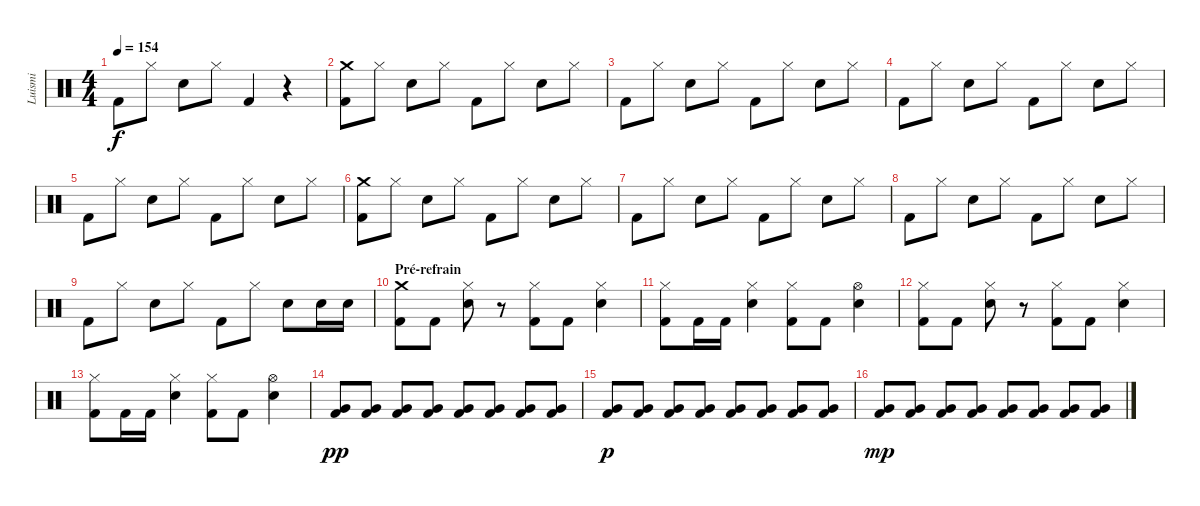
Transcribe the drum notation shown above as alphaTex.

\track ("Luismi" "Luismi") {instrument percussion}
\staff {score}
\articulation defaults
\ts (4 4)
\tempo 154
\clef neutral
\ks c "Kick (hit) 2".8{dy f} "Hi-Hat (closed)".8 "Snare (hit) 2".8 "Hi-Hat (closed)".8 "Kick (hit) 2".4
r.4 |
("Crash medium (hit)" "Kick (hit) 2").8 "Hi-Hat (closed)".8 "Snare (hit) 2".8 "Hi-Hat (closed)".8 "Kick (hit) 2".8 "Hi-Hat (closed)".8 "Snare (hit) 2".8 "Hi-Hat (closed)".8 |
"Kick (hit) 2".8 "Hi-Hat (closed)".8 "Snare (hit) 2".8 "Hi-Hat (closed)".8 "Kick (hit) 2".8 "Hi-Hat (closed)".8 "Snare (hit) 2".8 "Hi-Hat (closed)".8 |
"Kick (hit) 2".8 "Hi-Hat (closed)".8 "Snare (hit) 2".8 "Hi-Hat (closed)".8 "Kick (hit) 2".8 "Hi-Hat (closed)".8 "Snare (hit) 2".8 "Hi-Hat (closed)".8 |
"Kick (hit) 2".8 "Hi-Hat (closed)".8 "Snare (hit) 2".8 "Hi-Hat (closed)".8 "Kick (hit) 2".8 "Hi-Hat (closed)".8 "Snare (hit) 2".8 "Hi-Hat (closed)".8 |
("Crash medium (hit)" "Kick (hit) 2").8 "Hi-Hat (closed)".8 "Snare (hit) 2".8 "Hi-Hat (closed)".8 "Kick (hit) 2".8 "Hi-Hat (closed)".8 "Snare (hit) 2".8 "Hi-Hat (closed)".8 |
"Kick (hit) 2".8 "Hi-Hat (closed)".8 "Snare (hit) 2".8 "Hi-Hat (closed)".8 "Kick (hit) 2".8 "Hi-Hat (closed)".8 "Snare (hit) 2".8 "Hi-Hat (closed)".8 |
"Kick (hit) 2".8 "Hi-Hat (closed)".8 "Snare (hit) 2".8 "Hi-Hat (closed)".8 "Kick (hit) 2".8 "Hi-Hat (closed)".8 "Snare (hit) 2".8 "Hi-Hat (closed)".8 |
"Kick (hit) 2".8 "Hi-Hat (closed)".8 "Snare (hit) 2".8 "Hi-Hat (closed)".8 "Kick (hit) 2".8 "Hi-Hat (closed)".8 "Snare (hit) 2".8 "Snare (hit) 2".16 "Snare (hit) 2".16 |
\section ("" "Pré-refrain")
("Crash medium (hit)" "Kick (hit) 2").8 "Kick (hit) 2".8 ("Hi-Hat (closed)" "Snare (hit) 2").8 r.8 ("Hi-Hat (closed)" "Kick (hit) 2").8 "Kick (hit) 2".8 ("Hi-Hat (closed)" "Snare (hit) 2").4 |
("Hi-Hat (closed)" "Kick (hit) 2").8 "Kick (hit) 2".16 "Kick (hit) 2".16 ("Hi-Hat (closed)" "Snare (hit) 2").4 ("Hi-Hat (closed)" "Kick (hit) 2").8 "Kick (hit) 2".8 ("Hi-Hat (open)" "Snare (hit) 2").4 |
("Hi-Hat (closed)" "Kick (hit) 2").8 "Kick (hit) 2".8 ("Hi-Hat (closed)" "Snare (hit) 2").8 r.8 ("Hi-Hat (closed)" "Kick (hit) 2").8 "Kick (hit) 2".8 ("Hi-Hat (closed)" "Snare (hit) 2").4 |
("Hi-Hat (closed)" "Kick (hit) 2").8 "Kick (hit) 2".16 "Kick (hit) 2".16 ("Hi-Hat (closed)" "Snare (hit) 2").4 ("Hi-Hat (closed)" "Kick (hit) 2").8 "Kick (hit) 2".8 ("Hi-Hat (open)" "Snare (hit) 2").4 |
("Very Low Tom (hit)" "Kick (hit) 2").8{dy pp} ("Very Low Tom (hit)" "Kick (hit) 2").8 ("Very Low Tom (hit)" "Kick (hit) 2").8 ("Very Low Tom (hit)" "Kick (hit) 2").8 ("Very Low Tom (hit)" "Kick (hit) 2").8 ("Very Low Tom (hit)" "Kick (hit) 2").8 ("Very Low Tom (hit)" "Kick (hit) 2").8 ("Very Low Tom (hit)" "Kick (hit) 2").8 |
("Very Low Tom (hit)" "Kick (hit) 2").8{dy p} ("Very Low Tom (hit)" "Kick (hit) 2").8 ("Very Low Tom (hit)" "Kick (hit) 2").8 ("Very Low Tom (hit)" "Kick (hit) 2").8 ("Very Low Tom (hit)" "Kick (hit) 2").8 ("Very Low Tom (hit)" "Kick (hit) 2").8 ("Very Low Tom (hit)" "Kick (hit) 2").8 ("Very Low Tom (hit)" "Kick (hit) 2").8 |
("Very Low Tom (hit)" "Kick (hit) 2").8{dy mp} ("Very Low Tom (hit)" "Kick (hit) 2").8 ("Very Low Tom (hit)" "Kick (hit) 2").8 ("Very Low Tom (hit)" "Kick (hit) 2").8 ("Very Low Tom (hit)" "Kick (hit) 2").8 ("Very Low Tom (hit)" "Kick (hit) 2").8 ("Very Low Tom (hit)" "Kick (hit) 2").8 ("Very Low Tom (hit)" "Kick (hit) 2").8
